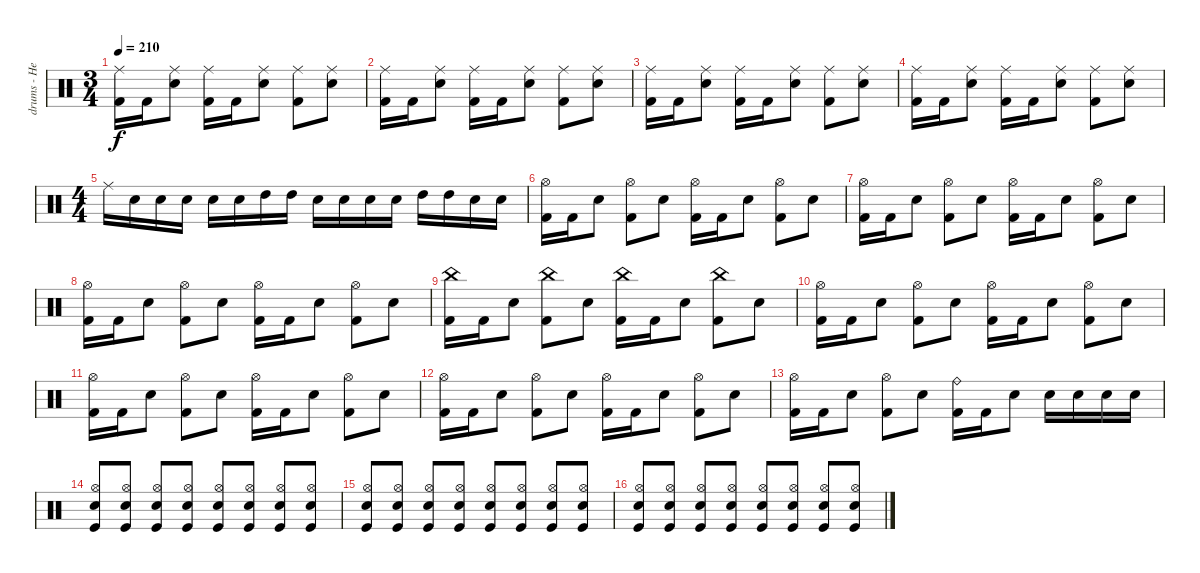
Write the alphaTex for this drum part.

\track ("drums - Heikki" "drums - He") {instrument percussion}
\staff {score}
\articulation defaults
\ts (3 4)
\tempo 210
\clef neutral
\ks c
("Ride (middle)" "Kick (hit) 2").16{dy f} "Kick (hit) 2".16 ("Ride (middle)" "Snare (hit) 2").8 ("Ride (middle)" "Kick (hit) 2").16 "Kick (hit) 2".16 ("Ride (middle)" "Snare (hit) 2").8 ("Ride (middle)" "Kick (hit) 2").8 ("Ride (middle)" "Snare (hit) 2").8 |
("Ride (middle)" "Kick (hit) 2").16 "Kick (hit) 2".16 ("Ride (middle)" "Snare (hit) 2").8 ("Ride (middle)" "Kick (hit) 2").16 "Kick (hit) 2".16 ("Ride (middle)" "Snare (hit) 2").8 ("Ride (middle)" "Kick (hit) 2").8 ("Ride (middle)" "Snare (hit) 2").8 |
("Ride (middle)" "Kick (hit) 2").16 "Kick (hit) 2".16 ("Ride (middle)" "Snare (hit) 2").8 ("Ride (middle)" "Kick (hit) 2").16 "Kick (hit) 2".16 ("Ride (middle)" "Snare (hit) 2").8 ("Ride (middle)" "Kick (hit) 2").8 ("Ride (middle)" "Snare (hit) 2").8 |
("Ride (middle)" "Kick (hit) 2").16 "Kick (hit) 2".16 ("Ride (middle)" "Snare (hit) 2").8 ("Ride (middle)" "Kick (hit) 2").16 "Kick (hit) 2".16 ("Ride (middle)" "Snare (hit) 2").8 ("Ride (middle)" "Kick (hit) 2").8 ("Ride (middle)" "Snare (hit) 2").8 |
\ts (4 4)
"Ride (middle)".16 "Snare (hit) 2".16 "Snare (hit) 2".16 "Snare (hit) 2".16 "Snare (hit) 2".16 "Snare (hit) 2".16 "High Tom (hit)".16 "High Tom (hit)".16 "Snare (hit) 2".16 "Snare (hit) 2".16 "Snare (hit) 2".16 "Snare (hit) 2".16 "High Tom (hit)".16 "High Tom (hit)".16 "Snare (hit) 2".16 "Snare (hit) 2".16 |
("Hi-Hat (open)" "Kick (hit) 2").16 "Kick (hit) 2".16 "Snare (hit) 2".8 ("Hi-Hat (open)" "Kick (hit) 2").8 "Snare (hit) 2".8 ("Hi-Hat (open)" "Kick (hit) 2").16 "Kick (hit) 2".16 "Snare (hit) 2".8 ("Hi-Hat (open)" "Kick (hit) 2").8 "Snare (hit) 2".8 |
("Hi-Hat (open)" "Kick (hit) 2").16 "Kick (hit) 2".16 "Snare (hit) 2".8 ("Hi-Hat (open)" "Kick (hit) 2").8 "Snare (hit) 2".8 ("Hi-Hat (open)" "Kick (hit) 2").16 "Kick (hit) 2".16 "Snare (hit) 2".8 ("Hi-Hat (open)" "Kick (hit) 2").8 "Snare (hit) 2".8 |
("Hi-Hat (open)" "Kick (hit) 2").16 "Kick (hit) 2".16 "Snare (hit) 2".8 ("Hi-Hat (open)" "Kick (hit) 2").8 "Snare (hit) 2".8 ("Hi-Hat (open)" "Kick (hit) 2").16 "Kick (hit) 2".16 "Snare (hit) 2".8 ("Hi-Hat (open)" "Kick (hit) 2").8 "Snare (hit) 2".8 |
("China (hit)" "Kick (hit) 2").16 "Kick (hit) 2".16 "Snare (hit) 2".8 ("China (hit)" "Kick (hit) 2").8 "Snare (hit) 2".8 ("China (hit)" "Kick (hit) 2").16 "Kick (hit) 2".16 "Snare (hit) 2".8 ("China (hit)" "Kick (hit) 2").8 "Snare (hit) 2".8 |
("Hi-Hat (open)" "Kick (hit) 2").16 "Kick (hit) 2".16 "Snare (hit) 2".8 ("Hi-Hat (open)" "Kick (hit) 2").8 "Snare (hit) 2".8 ("Hi-Hat (open)" "Kick (hit) 2").16 "Kick (hit) 2".16 "Snare (hit) 2".8 ("Hi-Hat (open)" "Kick (hit) 2").8 "Snare (hit) 2".8 |
("Hi-Hat (open)" "Kick (hit) 2").16 "Kick (hit) 2".16 "Snare (hit) 2".8 ("Hi-Hat (open)" "Kick (hit) 2").8 "Snare (hit) 2".8 ("Hi-Hat (open)" "Kick (hit) 2").16 "Kick (hit) 2".16 "Snare (hit) 2".8 ("Hi-Hat (open)" "Kick (hit) 2").8 "Snare (hit) 2".8 |
("Hi-Hat (open)" "Kick (hit) 2").16 "Kick (hit) 2".16 "Snare (hit) 2".8 ("Hi-Hat (open)" "Kick (hit) 2").8 "Snare (hit) 2".8 ("Hi-Hat (open)" "Kick (hit) 2").16 "Kick (hit) 2".16 "Snare (hit) 2".8 ("Hi-Hat (open)" "Kick (hit) 2").8 "Snare (hit) 2".8 |
("Hi-Hat (open)" "Kick (hit) 2").16 "Kick (hit) 2".16 "Snare (hit) 2".8 ("Hi-Hat (open)" "Kick (hit) 2").8 "Snare (hit) 2".8 ("Ride (bell)" "Kick (hit) 2").16 "Kick (hit) 2".16 "Snare (hit) 2".8 "Snare (hit) 2".16 "Snare (hit) 2".16 "Snare (hit) 2".16 "Snare (hit) 2".16 |
("Hi-Hat (open)" "Snare (hit) 2" "Kick (hit)").8 ("Hi-Hat (open)" "Snare (hit) 2" "Kick (hit)").8 ("Hi-Hat (open)" "Snare (hit) 2" "Kick (hit)").8 ("Hi-Hat (open)" "Snare (hit) 2" "Kick (hit)").8 ("Hi-Hat (open)" "Snare (hit) 2" "Kick (hit)").8 ("Hi-Hat (open)" "Snare (hit) 2" "Kick (hit)").8 ("Hi-Hat (open)" "Snare (hit) 2" "Kick (hit)").8 ("Hi-Hat (open)" "Snare (hit) 2" "Kick (hit)").8 |
("Hi-Hat (open)" "Snare (hit) 2" "Kick (hit)").8 ("Hi-Hat (open)" "Snare (hit) 2" "Kick (hit)").8 ("Hi-Hat (open)" "Snare (hit) 2" "Kick (hit)").8 ("Hi-Hat (open)" "Snare (hit) 2" "Kick (hit)").8 ("Hi-Hat (open)" "Snare (hit) 2" "Kick (hit)").8 ("Hi-Hat (open)" "Snare (hit) 2" "Kick (hit)").8 ("Hi-Hat (open)" "Snare (hit) 2" "Kick (hit)").8 ("Hi-Hat (open)" "Snare (hit) 2" "Kick (hit)").8 |
("Hi-Hat (open)" "Snare (hit) 2" "Kick (hit)").8 ("Hi-Hat (open)" "Snare (hit) 2" "Kick (hit)").8 ("Hi-Hat (open)" "Snare (hit) 2" "Kick (hit)").8 ("Hi-Hat (open)" "Snare (hit) 2" "Kick (hit)").8 ("Hi-Hat (open)" "Snare (hit) 2" "Kick (hit)").8 ("Hi-Hat (open)" "Snare (hit) 2" "Kick (hit)").8 ("Hi-Hat (open)" "Snare (hit) 2" "Kick (hit)").8 ("Hi-Hat (open)" "Snare (hit) 2" "Kick (hit)").8
